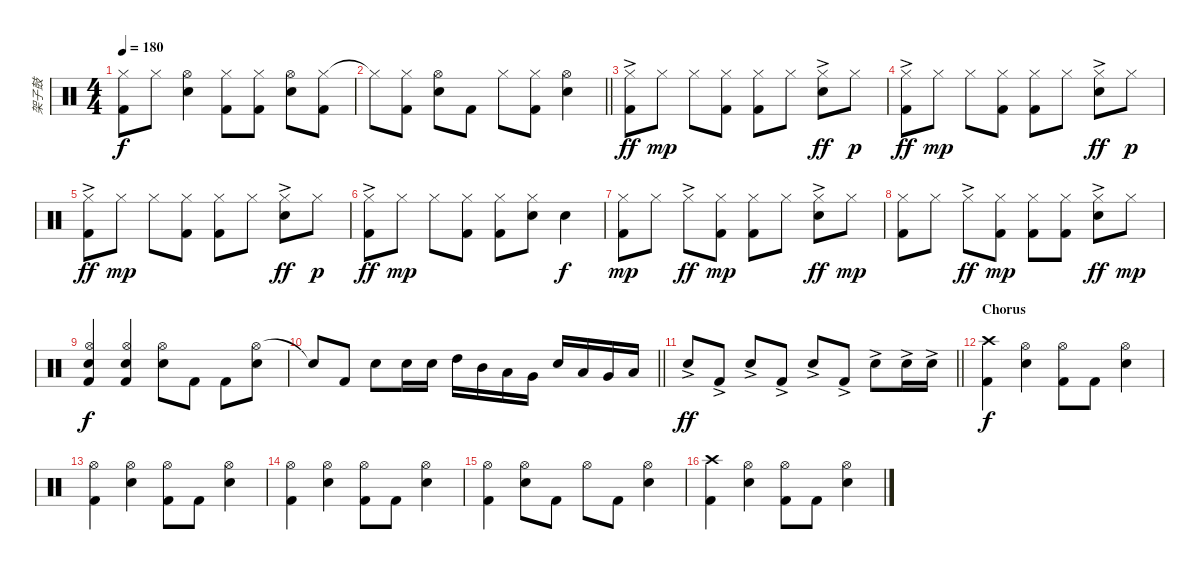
\track ("架子鼓" "架子鼓") {instrument percussion}
\staff {score}
\articulation defaults
\ts (4 4)
\tempo 180
\clef neutral
\ks c
("Hi-Hat (closed)" "Kick (hit) 2").8{dy f} "Hi-Hat (closed)".8 ("Hi-Hat (open)" "Snare (hit) 2").4 ("Hi-Hat (closed)" "Kick (hit) 2").8 ("Hi-Hat (closed)" "Kick (hit) 2").8 ("Hi-Hat (open)" "Snare (hit) 2").8 ("Hi-Hat (closed)" "Kick (hit) 2").8 |
\barLineRight lightlight "Hi-Hat (closed)"{t}.8
("Hi-Hat (closed)" "Kick (hit) 2").8 ("Hi-Hat (open)" "Snare (hit) 2").8 "Kick (hit) 2".8 "Hi-Hat (closed)".8 ("Hi-Hat (closed)" "Kick (hit) 2").8 ("Hi-Hat (open)" "Snare (hit) 2").4 |
("Hi-Hat (closed)"{ac} "Kick (hit) 2").8{dy ff} "Hi-Hat (closed)".8{dy mp} "Hi-Hat (closed)".8 ("Hi-Hat (closed)" "Kick (hit) 2").8 ("Hi-Hat (closed)" "Kick (hit) 2").8 "Hi-Hat (closed)".8 ("Hi-Hat (closed)"{ac} "Snare (hit) 2").8{dy ff} "Hi-Hat (closed)".8{dy p} |
("Hi-Hat (closed)"{ac} "Kick (hit) 2").8{dy ff} "Hi-Hat (closed)".8{dy mp} "Hi-Hat (closed)".8 ("Hi-Hat (closed)" "Kick (hit) 2").8 ("Hi-Hat (closed)" "Kick (hit) 2").8 "Hi-Hat (closed)".8 ("Hi-Hat (closed)"{ac} "Snare (hit) 2").8{dy ff} "Hi-Hat (closed)".8{dy p} |
("Hi-Hat (closed)"{ac} "Kick (hit) 2").8{dy ff} "Hi-Hat (closed)".8{dy mp} "Hi-Hat (closed)".8 ("Hi-Hat (closed)" "Kick (hit) 2").8 ("Hi-Hat (closed)" "Kick (hit) 2").8 "Hi-Hat (closed)".8 ("Hi-Hat (closed)"{ac} "Snare (hit) 2").8{dy ff} "Hi-Hat (closed)".8{dy p} |
("Hi-Hat (closed)"{ac} "Kick (hit) 2").8{dy ff} "Hi-Hat (closed)".8{dy mp} "Hi-Hat (closed)".8 ("Hi-Hat (closed)" "Kick (hit) 2").8 ("Hi-Hat (closed)" "Kick (hit) 2").8 ("Hi-Hat (closed)" "Snare (hit) 2").8 "Snare (hit) 2".4{dy f} |
("Hi-Hat (closed)" "Kick (hit) 2").8{dy mp} "Hi-Hat (closed)".8 "Hi-Hat (closed)"{ac}.8{dy ff} ("Hi-Hat (closed)" "Kick (hit) 2").8{dy mp} ("Hi-Hat (closed)" "Kick (hit) 2").8 "Hi-Hat (closed)".8 ("Hi-Hat (closed)"{ac} "Snare (hit) 2").8{dy ff} "Hi-Hat (closed)".8{dy mp} |
("Hi-Hat (closed)" "Kick (hit) 2").8 "Hi-Hat (closed)".8 "Hi-Hat (closed)"{ac}.8{dy ff} ("Hi-Hat (closed)" "Kick (hit) 2").8{dy mp} ("Hi-Hat (closed)" "Kick (hit) 2").8 ("Hi-Hat (closed)" "Kick (hit) 2").8 ("Hi-Hat (closed)"{ac} "Snare (hit) 2").8{dy ff} "Hi-Hat (closed)".8{dy mp} |
("Hi-Hat (open)" "Snare (hit) 2" "Kick (hit) 2").4{dy f} ("Hi-Hat (open)" "Snare (hit) 2" "Kick (hit) 2").4 ("Hi-Hat (open)" "Snare (hit) 2").8 "Kick (hit) 2".8 "Kick (hit) 2".8 ("Hi-Hat (open)" "Snare (hit) 2").8 |
\barLineRight lightlight "Snare (hit)"{t}.8 "Kick (hit) 2".8 "Snare (hit) 2".8 "Snare (hit) 2".16 "Snare (hit) 2".16 "High Tom (hit)".16 "Mid Tom (hit)".16 "Low Tom (hit)".16 "Very Low Tom (hit)".16 "Snare (hit) 2".16 "Low Tom (hit)".16 "Very Low Tom (hit)".16 "Low Floor Tom (hit)".16
|
\barLineRight lightlight "Snare (hit) 2"{ac}.8{dy ff} "Kick (hit) 2"{ac}.8 "Snare (hit) 2"{ac}.8 "Kick (hit) 2"{ac}.8 "Snare (hit) 2"{ac}.8 "Kick (hit) 2"{ac}.8 "Snare (hit) 2"{ac}.8 "Snare (hit) 2"{ac}.16 "Snare (hit) 2"{ac}.16
|
\section ("" "Chorus")
("Crash high (hit)" "Kick (hit) 2").4{dy f} ("Hi-Hat (open)" "Snare (hit) 2").4 ("Hi-Hat (open)" "Kick (hit) 2").8 "Kick (hit) 2".8 ("Hi-Hat (open)" "Snare (hit) 2").4 |
("Hi-Hat (open)" "Kick (hit) 2").4 ("Hi-Hat (open)" "Snare (hit) 2").4 ("Hi-Hat (open)" "Kick (hit) 2").8 "Kick (hit) 2".8 ("Hi-Hat (open)" "Snare (hit) 2").4 |
("Hi-Hat (open)" "Kick (hit) 2").4 ("Hi-Hat (open)" "Snare (hit) 2").4 ("Hi-Hat (open)" "Kick (hit) 2").8 "Kick (hit) 2".8 ("Hi-Hat (open)" "Snare (hit) 2").4 |
("Hi-Hat (open)" "Kick (hit) 2").4 ("Hi-Hat (open)" "Snare (hit) 2").8 "Kick (hit) 2".8 "Hi-Hat (open)".8 "Kick (hit) 2".8 ("Hi-Hat (open)" "Snare (hit) 2").4 |
("Crash high (hit)" "Kick (hit) 2").4 ("Hi-Hat (open)" "Snare (hit) 2").4 ("Hi-Hat (open)" "Kick (hit) 2").8 "Kick (hit) 2".8 ("Hi-Hat (open)" "Snare (hit) 2").4
